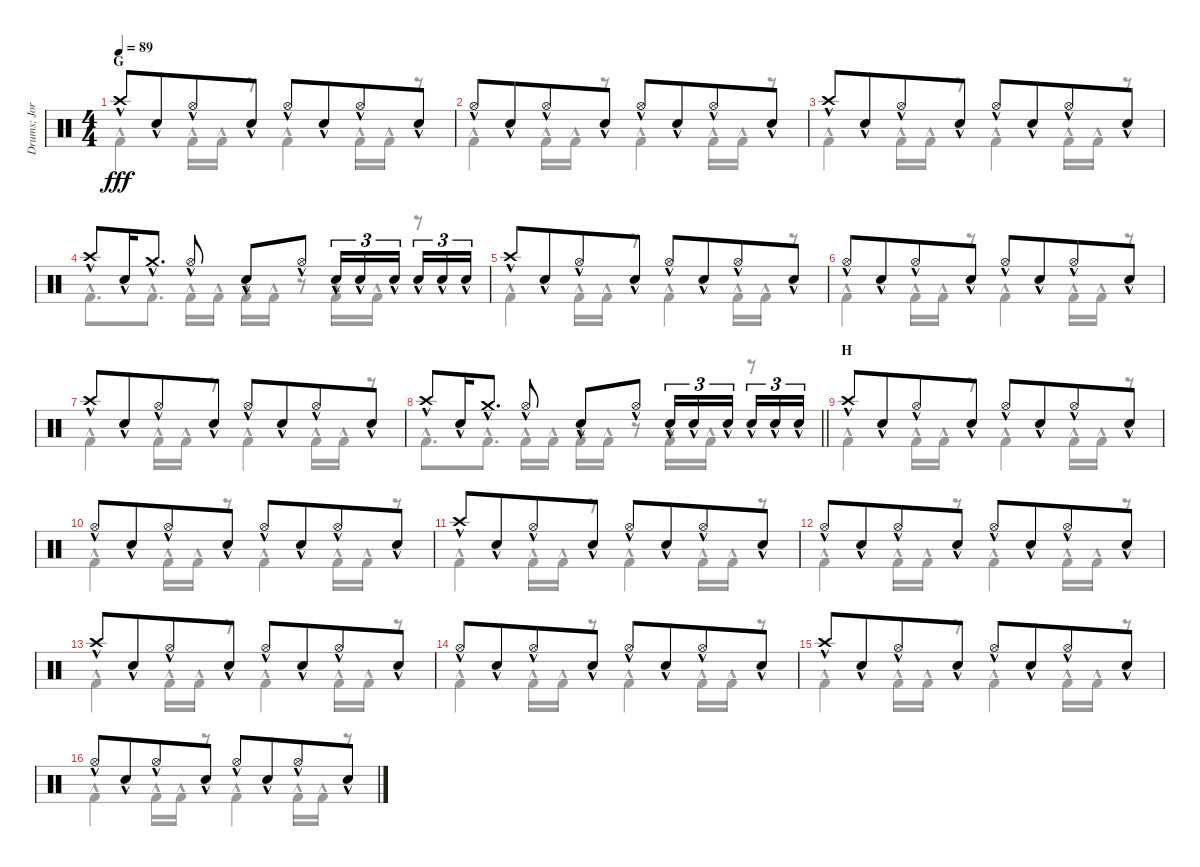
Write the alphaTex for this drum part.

\track ("Drums: Jorg" "Drums: Jor") {instrument percussion}
\staff {score}
\articulation defaults
\voice
\ts (4 4)
\section ("" "G")
\tempo 89
\clef neutral
\ks c "Crash high (hit)"{hac}.8{dy fff} "Snare (hit) 2"{hac}.8{beam merge} "Hi-Hat (open)"{hac}.8 "Snare (hit) 2"{hac}.8 "Hi-Hat (open)"{hac}.8 "Snare (hit) 2"{hac}.8{beam merge} "Hi-Hat (open)"{hac}.8 "Snare (hit) 2"{hac}.8
|
"Hi-Hat (open)"{hac}.8 "Snare (hit) 2"{hac}.8{beam merge} "Hi-Hat (open)"{hac}.8 "Snare (hit) 2"{hac}.8 "Hi-Hat (open)"{hac}.8 "Snare (hit) 2"{hac}.8{beam merge} "Hi-Hat (open)"{hac}.8 "Snare (hit) 2"{hac}.8 |
"Crash high (hit)"{hac}.8 "Snare (hit) 2"{hac}.8{beam merge} "Hi-Hat (open)"{hac}.8 "Snare (hit) 2"{hac}.8 "Hi-Hat (open)"{hac}.8 "Snare (hit) 2"{hac}.8{beam merge} "Hi-Hat (open)"{hac}.8 "Snare (hit) 2"{hac}.8 |
"Crash high (hit)"{hac}.8 "Snare (hit) 2"{hac}.16{beam merge} "Crash medium (hit)"{hac}.8{d} "Hi-Hat (open)"{hac}.8 "Snare (hit) 2"{hac}.8{beam merge} "Hi-Hat (open)"{hac}.8 "Snare (hit) 2"{hac}.16{tu (3 2)} "Snare (hit) 2"{hac}.16{tu (3 2)} "Snare (hit) 2"{hac}.16{tu (3 2) beam splitsecondary} "Snare (hit) 2"{hac}.16{tu (3 2)} "Snare (hit) 2"{hac}.16{tu (3 2)} "Snare (hit) 2"{hac}.16{tu (3 2)} |
"Crash high (hit)"{hac}.8 "Snare (hit) 2"{hac}.8{beam merge} "Hi-Hat (open)"{hac}.8 "Snare (hit) 2"{hac}.8 "Hi-Hat (open)"{hac}.8 "Snare (hit) 2"{hac}.8{beam merge} "Hi-Hat (open)"{hac}.8 "Snare (hit) 2"{hac}.8 |
"Hi-Hat (open)"{hac}.8 "Snare (hit) 2"{hac}.8{beam merge} "Hi-Hat (open)"{hac}.8 "Snare (hit) 2"{hac}.8 "Hi-Hat (open)"{hac}.8 "Snare (hit) 2"{hac}.8{beam merge} "Hi-Hat (open)"{hac}.8 "Snare (hit) 2"{hac}.8 |
"Crash high (hit)"{hac}.8 "Snare (hit) 2"{hac}.8{beam merge} "Hi-Hat (open)"{hac}.8 "Snare (hit) 2"{hac}.8 "Hi-Hat (open)"{hac}.8 "Snare (hit) 2"{hac}.8{beam merge} "Hi-Hat (open)"{hac}.8 "Snare (hit) 2"{hac}.8 |
\barLineRight lightlight "Crash high (hit)"{hac}.8 "Snare (hit) 2"{hac}.16{beam merge} "Crash medium (hit)"{hac}.8{d} "Hi-Hat (open)"{hac}.8 "Snare (hit) 2"{hac}.8{beam merge} "Hi-Hat (open)"{hac}.8 "Snare (hit) 2"{hac}.16{tu (3 2)} "Snare (hit) 2"{hac}.16{tu (3 2)} "Snare (hit) 2"{hac}.16{tu (3 2) beam splitsecondary} "Snare (hit) 2"{hac}.16{tu (3 2)} "Snare (hit) 2"{hac}.16{tu (3 2)} "Snare (hit) 2"{hac}.16{tu (3 2)}
|
\section ("" "H")
"Crash high (hit)"{hac}.8 "Snare (hit) 2"{hac}.8{beam merge} "Hi-Hat (open)"{hac}.8 "Snare (hit) 2"{hac}.8 "Hi-Hat (open)"{hac}.8 "Snare (hit) 2"{hac}.8{beam merge} "Hi-Hat (open)"{hac}.8 "Snare (hit) 2"{hac}.8 |
"Hi-Hat (open)"{hac}.8 "Snare (hit) 2"{hac}.8{beam merge} "Hi-Hat (open)"{hac}.8 "Snare (hit) 2"{hac}.8 "Hi-Hat (open)"{hac}.8 "Snare (hit) 2"{hac}.8{beam merge} "Hi-Hat (open)"{hac}.8 "Snare (hit) 2"{hac}.8 |
"Crash high (hit)"{hac}.8 "Snare (hit) 2"{hac}.8{beam merge} "Hi-Hat (open)"{hac}.8 "Snare (hit) 2"{hac}.8 "Hi-Hat (open)"{hac}.8 "Snare (hit) 2"{hac}.8{beam merge} "Hi-Hat (open)"{hac}.8 "Snare (hit) 2"{hac}.8 |
"Hi-Hat (open)"{hac}.8 "Snare (hit) 2"{hac}.8{beam merge} "Hi-Hat (open)"{hac}.8 "Snare (hit) 2"{hac}.8 "Hi-Hat (open)"{hac}.8 "Snare (hit) 2"{hac}.8{beam merge} "Hi-Hat (open)"{hac}.8 "Snare (hit) 2"{hac}.8 |
"Crash high (hit)"{hac}.8 "Snare (hit) 2"{hac}.8{beam merge} "Hi-Hat (open)"{hac}.8 "Snare (hit) 2"{hac}.8 "Hi-Hat (open)"{hac}.8 "Snare (hit) 2"{hac}.8{beam merge} "Hi-Hat (open)"{hac}.8 "Snare (hit) 2"{hac}.8 |
"Hi-Hat (open)"{hac}.8 "Snare (hit) 2"{hac}.8{beam merge} "Hi-Hat (open)"{hac}.8 "Snare (hit) 2"{hac}.8 "Hi-Hat (open)"{hac}.8 "Snare (hit) 2"{hac}.8{beam merge} "Hi-Hat (open)"{hac}.8 "Snare (hit) 2"{hac}.8 |
"Crash high (hit)"{hac}.8 "Snare (hit) 2"{hac}.8{beam merge} "Hi-Hat (open)"{hac}.8 "Snare (hit) 2"{hac}.8 "Hi-Hat (open)"{hac}.8 "Snare (hit) 2"{hac}.8{beam merge} "Hi-Hat (open)"{hac}.8 "Snare (hit) 2"{hac}.8 |
"Hi-Hat (open)"{hac}.8 "Snare (hit) 2"{hac}.8{beam merge} "Hi-Hat (open)"{hac}.8 "Snare (hit) 2"{hac}.8 "Hi-Hat (open)"{hac}.8 "Snare (hit) 2"{hac}.8{beam merge} "Hi-Hat (open)"{hac}.8 "Snare (hit) 2"{hac}.8
\voice
\clef neutral
\ottava regular
\simile none
\ks c "Kick (hit) 2"{hac}.4{dy fff} "Kick (hit) 2"{hac}.16 "Kick (hit) 2"{hac}.16
r.8 "Kick (hit) 2"{hac}.4 "Kick (hit) 2"{hac}.16 "Kick (hit) 2"{hac}.16 r.8 |
"Kick (hit) 2"{hac}.4 "Kick (hit) 2"{hac}.16 "Kick (hit) 2"{hac}.16 r.8 "Kick (hit) 2"{hac}.4 "Kick (hit) 2"{hac}.16 "Kick (hit) 2"{hac}.16 r.8 |
"Kick (hit) 2"{hac}.4 "Kick (hit) 2"{hac}.16 "Kick (hit) 2"{hac}.16 r.8 "Kick (hit) 2"{hac}.4 "Kick (hit) 2"{hac}.16 "Kick (hit) 2"{hac}.16 r.8 |
"Kick (hit) 2"{hac}.8{d} "Kick (hit) 2"{hac}.8{d} "Kick (hit) 2"{hac}.16 "Kick (hit) 2"{hac}.16 "Kick (hit) 2"{hac}.16 "Kick (hit) 2"{hac}.16 r.8 "Kick (hit) 2"{hac}.16 "Kick (hit) 2"{hac}.16 r.8 |
"Kick (hit) 2"{hac}.4 "Kick (hit) 2"{hac}.16 "Kick (hit) 2"{hac}.16 r.8 "Kick (hit) 2"{hac}.4 "Kick (hit) 2"{hac}.16 "Kick (hit) 2"{hac}.16 r.8 |
"Kick (hit) 2"{hac}.4 "Kick (hit) 2"{hac}.16 "Kick (hit) 2"{hac}.16 r.8 "Kick (hit) 2"{hac}.4 "Kick (hit) 2"{hac}.16 "Kick (hit) 2"{hac}.16 r.8 |
"Kick (hit) 2"{hac}.4 "Kick (hit) 2"{hac}.16 "Kick (hit) 2"{hac}.16 r.8 "Kick (hit) 2"{hac}.4 "Kick (hit) 2"{hac}.16 "Kick (hit) 2"{hac}.16 r.8 |
\barLineRight lightlight "Kick (hit) 2"{hac}.8{d} "Kick (hit) 2"{hac}.8{d} "Kick (hit) 2"{hac}.16 "Kick (hit) 2"{hac}.16 "Kick (hit) 2"{hac}.16 "Kick (hit) 2"{hac}.16
r.8 "Kick (hit) 2"{hac}.16 "Kick (hit) 2"{hac}.16 r.8 |
"Kick (hit) 2"{hac}.4 "Kick (hit) 2"{hac}.16 "Kick (hit) 2"{hac}.16 r.8 "Kick (hit) 2"{hac}.4 "Kick (hit) 2"{hac}.16 "Kick (hit) 2"{hac}.16 r.8 |
"Kick (hit) 2"{hac}.4 "Kick (hit) 2"{hac}.16 "Kick (hit) 2"{hac}.16 r.8 "Kick (hit) 2"{hac}.4 "Kick (hit) 2"{hac}.16 "Kick (hit) 2"{hac}.16 r.8 |
"Kick (hit) 2"{hac}.4 "Kick (hit) 2"{hac}.16 "Kick (hit) 2"{hac}.16 r.8 "Kick (hit) 2"{hac}.4 "Kick (hit) 2"{hac}.16 "Kick (hit) 2"{hac}.16 r.8 |
"Kick (hit) 2"{hac}.4 "Kick (hit) 2"{hac}.16 "Kick (hit) 2"{hac}.16 r.8 "Kick (hit) 2"{hac}.4 "Kick (hit) 2"{hac}.16 "Kick (hit) 2"{hac}.16 r.8 |
"Kick (hit) 2"{hac}.4 "Kick (hit) 2"{hac}.16 "Kick (hit) 2"{hac}.16 r.8 "Kick (hit) 2"{hac}.4 "Kick (hit) 2"{hac}.16 "Kick (hit) 2"{hac}.16 r.8 |
"Kick (hit) 2"{hac}.4 "Kick (hit) 2"{hac}.16 "Kick (hit) 2"{hac}.16 r.8 "Kick (hit) 2"{hac}.4 "Kick (hit) 2"{hac}.16 "Kick (hit) 2"{hac}.16 r.8 |
"Kick (hit) 2"{hac}.4 "Kick (hit) 2"{hac}.16 "Kick (hit) 2"{hac}.16 r.8 "Kick (hit) 2"{hac}.4 "Kick (hit) 2"{hac}.16 "Kick (hit) 2"{hac}.16 r.8 |
"Kick (hit) 2"{hac}.4 "Kick (hit) 2"{hac}.16 "Kick (hit) 2"{hac}.16 r.8 "Kick (hit) 2"{hac}.4 "Kick (hit) 2"{hac}.16 "Kick (hit) 2"{hac}.16 r.8
